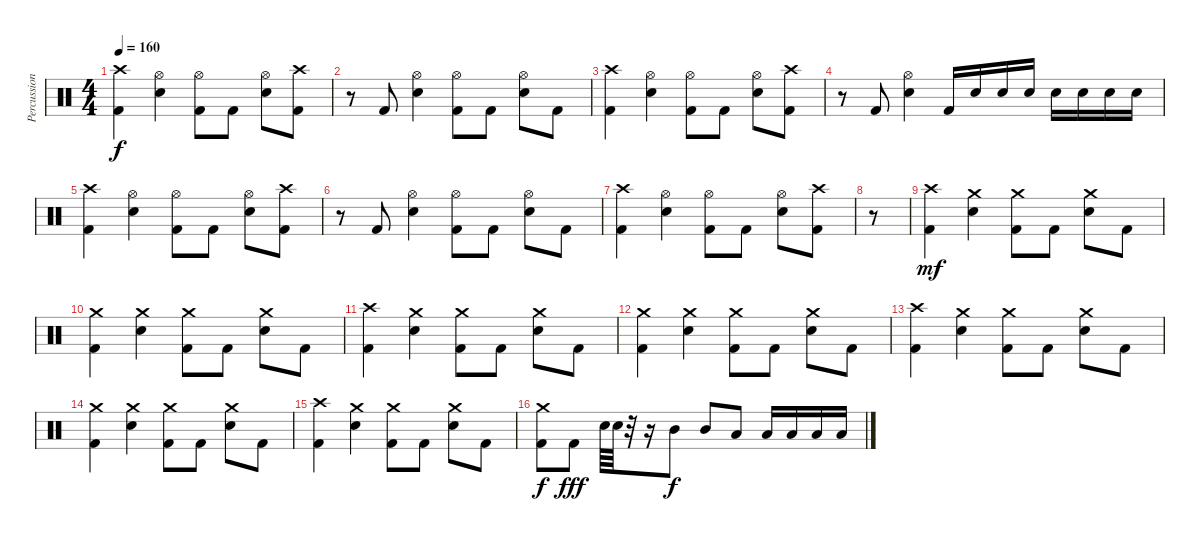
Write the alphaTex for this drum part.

\track ("Percussion" "Percussion") {instrument percussion}
\staff {score}
\articulation defaults
\ts (4 4)
\tempo 160
\clef neutral
\ks c
("Crash high (hit)" "Kick (hit) 2").4{dy f} ("Hi-Hat (open)" "Electric Snare (hit)").4 ("Hi-Hat (open)" "Kick (hit) 2").8 "Kick (hit) 2".8 ("Hi-Hat (open)" "Electric Snare (hit)").8 ("Crash high (hit)" "Kick (hit) 2").8 |
r.8 "Kick (hit) 2".8 ("Hi-Hat (open)" "Electric Snare (hit)").4 ("Hi-Hat (open)" "Kick (hit) 2").8 "Kick (hit) 2".8 ("Hi-Hat (open)" "Electric Snare (hit)").8 "Kick (hit) 2".8 |
("Crash high (hit)" "Kick (hit) 2").4 ("Hi-Hat (open)" "Electric Snare (hit)").4 ("Hi-Hat (open)" "Kick (hit) 2").8 "Kick (hit) 2".8 ("Hi-Hat (open)" "Electric Snare (hit)").8 ("Crash high (hit)" "Kick (hit) 2").8 |
r.8 "Kick (hit) 2".8 ("Hi-Hat (open)" "Electric Snare (hit)").4 "Kick (hit) 2".16 "Electric Snare (hit)".16 "Electric Snare (hit)".16 "Electric Snare (hit)".16 "Electric Snare (hit)".16 "Electric Snare (hit)".16 "Electric Snare (hit)".16 "Electric Snare (hit)".16 |
("Crash high (hit)" "Kick (hit) 2").4 ("Hi-Hat (open)" "Electric Snare (hit)").4 ("Hi-Hat (open)" "Kick (hit) 2").8 "Kick (hit) 2".8 ("Hi-Hat (open)" "Electric Snare (hit)").8 ("Crash high (hit)" "Kick (hit) 2").8 |
r.8 "Kick (hit) 2".8 ("Hi-Hat (open)" "Electric Snare (hit)").4 ("Hi-Hat (open)" "Kick (hit) 2").8 "Kick (hit) 2".8 ("Hi-Hat (open)" "Electric Snare (hit)").8 "Kick (hit) 2".8 |
("Crash high (hit)" "Kick (hit) 2").4 ("Hi-Hat (open)" "Electric Snare (hit)").4 ("Hi-Hat (open)" "Kick (hit) 2").8 "Kick (hit) 2".8 ("Hi-Hat (open)" "Electric Snare (hit)").8 ("Crash high (hit)" "Kick (hit) 2").8 |
r.8 |
("Crash high (hit)" "Kick (hit) 2").4{dy mf} ("Crash medium (hit)" "Electric Snare (hit)").4 ("Crash medium (hit)" "Kick (hit) 2").8 "Kick (hit) 2".8 ("Crash medium (hit)" "Electric Snare (hit)").8 "Kick (hit) 2".8 |
("Crash medium (hit)" "Kick (hit) 2").4 ("Crash medium (hit)" "Electric Snare (hit)").4 ("Crash medium (hit)" "Kick (hit) 2").8 "Kick (hit) 2".8 ("Crash medium (hit)" "Electric Snare (hit)").8 "Kick (hit) 2".8 |
("Crash high (hit)" "Kick (hit) 2").4 ("Crash medium (hit)" "Electric Snare (hit)").4 ("Crash medium (hit)" "Kick (hit) 2").8 "Kick (hit) 2".8 ("Crash medium (hit)" "Electric Snare (hit)").8 "Kick (hit) 2".8 |
("Crash medium (hit)" "Kick (hit) 2").4 ("Crash medium (hit)" "Electric Snare (hit)").4 ("Crash medium (hit)" "Kick (hit) 2").8 "Kick (hit) 2".8 ("Crash medium (hit)" "Electric Snare (hit)").8 "Kick (hit) 2".8 |
("Crash high (hit)" "Kick (hit) 2").4 ("Crash medium (hit)" "Electric Snare (hit)").4 ("Crash medium (hit)" "Kick (hit) 2").8 "Kick (hit) 2".8 ("Crash medium (hit)" "Electric Snare (hit)").8 "Kick (hit) 2".8 |
("Crash medium (hit)" "Kick (hit) 2").4 ("Crash medium (hit)" "Electric Snare (hit)").4 ("Crash medium (hit)" "Kick (hit) 2").8 "Kick (hit) 2".8 ("Crash medium (hit)" "Electric Snare (hit)").8 "Kick (hit) 2".8 |
("Crash high (hit)" "Kick (hit) 2").4 ("Crash medium (hit)" "Electric Snare (hit)").4 ("Crash medium (hit)" "Kick (hit) 2").8 "Kick (hit) 2".8 ("Crash medium (hit)" "Electric Snare (hit)").8 "Kick (hit) 2".8 |
("Crash medium (hit)" "Kick (hit) 2").8{dy f} "Kick (hit) 2".8{dy fff} "Electric Snare (hit)".64 "Electric Snare (hit)".64 r.32 r.16 "Mid Tom (hit)".8{dy f} "Mid Tom (hit)".8 "Low Tom (hit)".8 "Low Tom (hit)".16 "Low Tom (hit)".16 "Low Floor Tom (hit)".16 "Low Floor Tom (hit)".16
